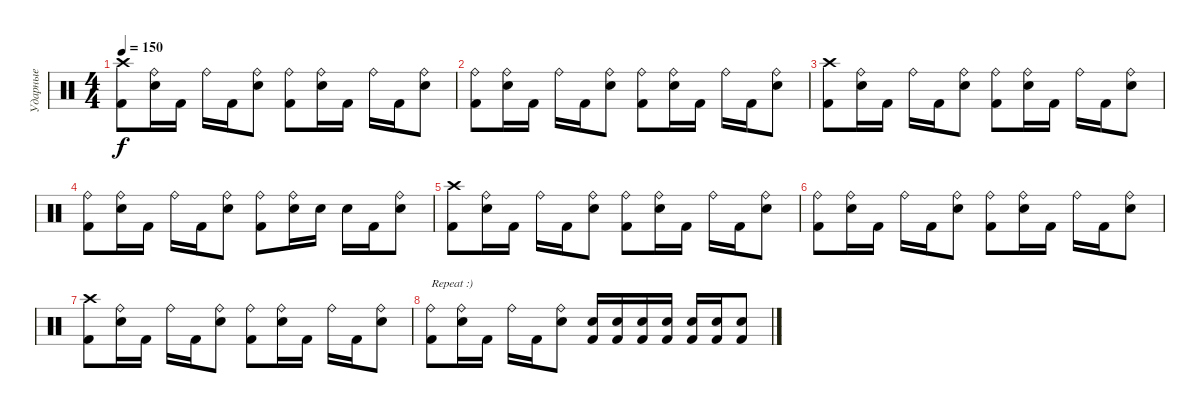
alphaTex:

\track ("Ударные" "Ударные") {instrument percussion}
\staff {score}
\articulation defaults
\ts (4 4)
\tempo 150
\clef neutral
\ks c
("Crash high (hit)" "Kick (hit) 2").8{dy f} ("Ride (bell)" "Electric Snare (hit)").16 "Kick (hit) 2".16 "Ride (bell)".16 "Kick (hit) 2".16 ("Ride (bell)" "Electric Snare (hit)").8 ("Ride (bell)" "Kick (hit) 2").8 ("Ride (bell)" "Electric Snare (hit)").16 "Kick (hit) 2".16 "Ride (bell)".16 "Kick (hit) 2".16 ("Ride (bell)" "Electric Snare (hit)").8 |
("Ride (bell)" "Kick (hit) 2").8 ("Ride (bell)" "Electric Snare (hit)").16 "Kick (hit) 2".16 "Ride (bell)".16 "Kick (hit) 2".16 ("Ride (bell)" "Electric Snare (hit)").8 ("Ride (bell)" "Kick (hit) 2").8 ("Ride (bell)" "Electric Snare (hit)").16 "Kick (hit) 2".16 "Ride (bell)".16 "Kick (hit) 2".16 ("Ride (bell)" "Electric Snare (hit)").8 |
("Crash high (hit)" "Kick (hit) 2").8 ("Ride (bell)" "Electric Snare (hit)").16 "Kick (hit) 2".16 "Ride (bell)".16 "Kick (hit) 2".16 ("Ride (bell)" "Electric Snare (hit)").8 ("Ride (bell)" "Kick (hit) 2").8 ("Ride (bell)" "Electric Snare (hit)").16 "Kick (hit) 2".16 "Ride (bell)".16 "Kick (hit) 2".16 ("Ride (bell)" "Electric Snare (hit)").8 |
("Ride (bell)" "Kick (hit) 2").8 ("Ride (bell)" "Electric Snare (hit)").16 "Kick (hit) 2".16 "Ride (bell)".16 "Kick (hit) 2".16 ("Ride (bell)" "Electric Snare (hit)").8 ("Ride (bell)" "Kick (hit) 2").8 ("Ride (bell)" "Electric Snare (hit)").16 "Electric Snare (hit)".16 "Electric Snare (hit)".16 "Kick (hit) 2".16 ("Ride (bell)" "Electric Snare (hit)").8 |
("Crash high (hit)" "Kick (hit) 2").8 ("Ride (bell)" "Electric Snare (hit)").16 "Kick (hit) 2".16 "Ride (bell)".16 "Kick (hit) 2".16 ("Ride (bell)" "Electric Snare (hit)").8 ("Ride (bell)" "Kick (hit) 2").8 ("Ride (bell)" "Electric Snare (hit)").16 "Kick (hit) 2".16 "Ride (bell)".16 "Kick (hit) 2".16 ("Ride (bell)" "Electric Snare (hit)").8 |
("Ride (bell)" "Kick (hit) 2").8 ("Ride (bell)" "Electric Snare (hit)").16 "Kick (hit) 2".16 "Ride (bell)".16 "Kick (hit) 2".16 ("Ride (bell)" "Electric Snare (hit)").8 ("Ride (bell)" "Kick (hit) 2").8 ("Ride (bell)" "Electric Snare (hit)").16 "Kick (hit) 2".16 "Ride (bell)".16 "Kick (hit) 2".16 ("Ride (bell)" "Electric Snare (hit)").8 |
("Crash high (hit)" "Kick (hit) 2").8 ("Ride (bell)" "Electric Snare (hit)").16 "Kick (hit) 2".16 "Ride (bell)".16 "Kick (hit) 2".16 ("Ride (bell)" "Electric Snare (hit)").8 ("Ride (bell)" "Kick (hit) 2").8 ("Ride (bell)" "Electric Snare (hit)").16 "Kick (hit) 2".16 "Ride (bell)".16 "Kick (hit) 2".16 ("Ride (bell)" "Electric Snare (hit)").8 |
("Ride (bell)" "Kick (hit) 2").8{txt "Repeat :)"} ("Ride (bell)" "Electric Snare (hit)").16 "Kick (hit) 2".16 "Ride (bell)".16 "Kick (hit) 2".16 ("Ride (bell)" "Electric Snare (hit)").8 ("Kick (hit) 2" "Electric Snare (hit)").16 ("Kick (hit) 2" "Electric Snare (hit)").16 ("Kick (hit) 2" "Electric Snare (hit)").16 ("Kick (hit) 2" "Electric Snare (hit)").16 ("Kick (hit) 2" "Electric Snare (hit)").16 ("Kick (hit) 2" "Electric Snare (hit)").16 ("Kick (hit) 2" "Electric Snare (hit)").8
